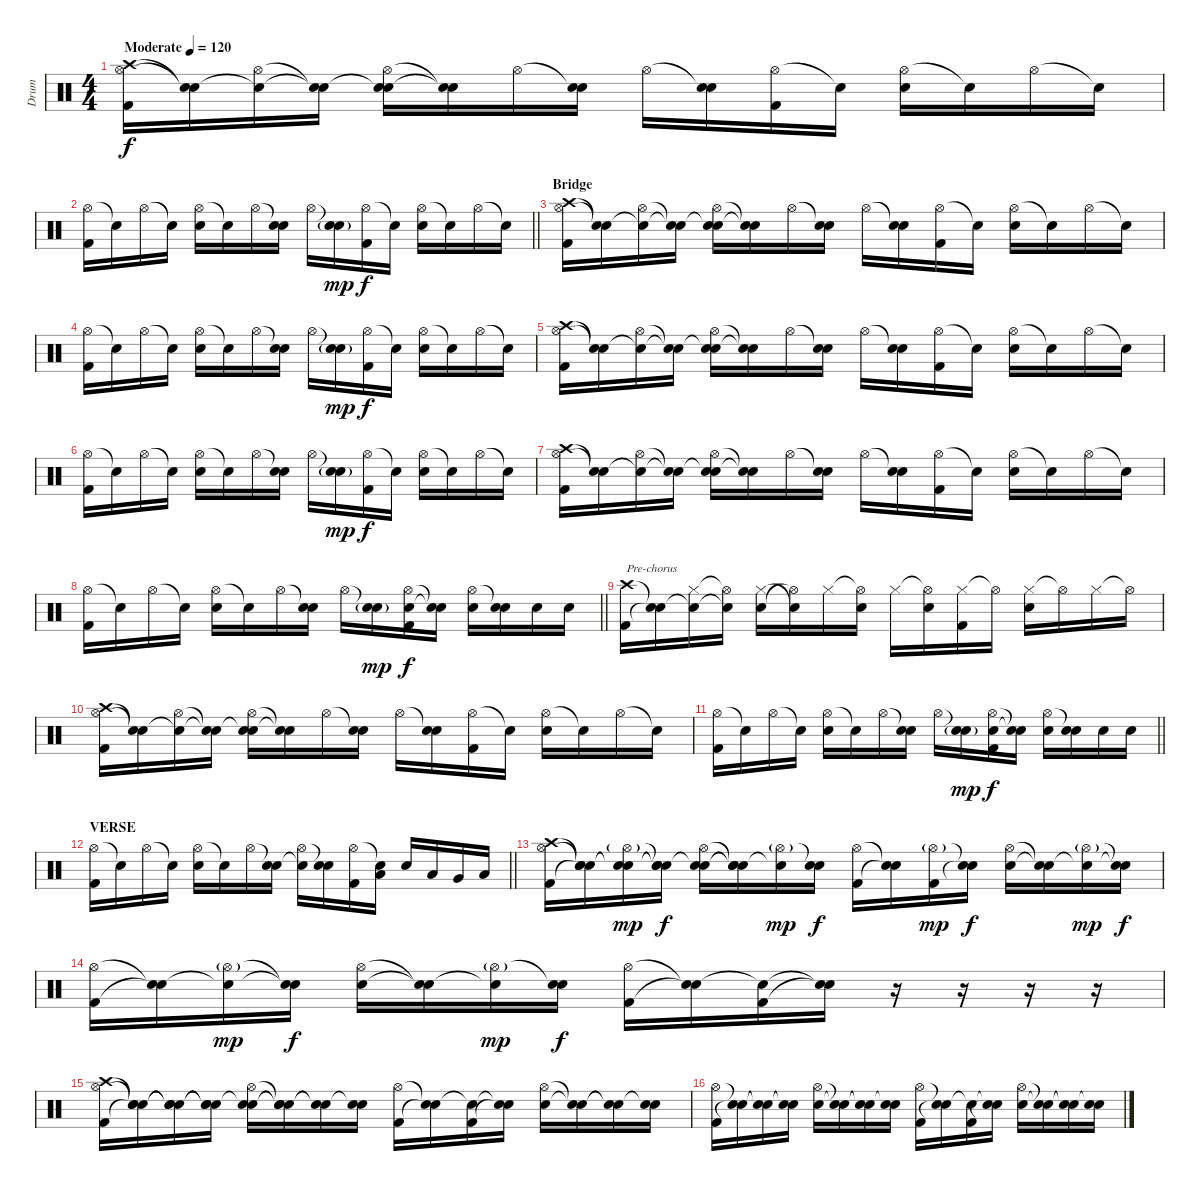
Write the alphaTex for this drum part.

\track ("Drum" "Drum") {instrument percussion}
\staff {score}
\articulation defaults
\ts (4 4)
\tempo (120 "Moderate")
\clef neutral
\ks c
("Crash high (hit)" "Hi-Hat (open)" "Kick (hit) 2").16{dy f} ("Snare (hit)"{t} "Snare (hit)"{t}).16 ("Snare (hit)"{t} "Hi-Hat (open)").16 ("Snare (hit)"{t} "Snare (hit)"{t}).16 ("Snare (hit)"{t} "Hi-Hat (open)" "Electric Snare (hit)").16 ("Snare (hit)"{t} "Snare (hit)"{t}).16 "Hi-Hat (open)".16 ("Snare (hit)"{t} "Electric Snare (hit)").16 "Hi-Hat (open)".16 ("Snare (hit)"{t} "Electric Snare (hit)").16 ("Hi-Hat (open)" "Kick (hit) 2").16 "Snare (hit)"{t}.16 ("Hi-Hat (open)" "Electric Snare (hit)").16 "Snare (hit)"{t}.16 "Hi-Hat (open)".16 "Snare (hit)"{t}.16 |
\barLineRight lightlight
("Hi-Hat (open)" "Kick (hit) 2").16 "Snare (hit)"{t}.16 "Hi-Hat (open)".16 "Snare (hit)"{t}.16 ("Hi-Hat (open)" "Electric Snare (hit)").16 "Snare (hit)"{t}.16 "Hi-Hat (open)".16 ("Snare (hit)"{t} "Electric Snare (hit)").16 "Hi-Hat (open)".16 ("Snare (hit)"{t} "Electric Snare (hit)"{g}).16{dy mp} ("Hi-Hat (open)" "Kick (hit) 2").16{dy f} "Snare (hit)"{t}.16 ("Hi-Hat (open)" "Electric Snare (hit)").16 "Snare (hit)"{t}.16 "Hi-Hat (open)".16 "Snare (hit)"{t}.16 |
\section ("" "Bridge")
("Crash high (hit)" "Hi-Hat (open)" "Kick (hit) 2").16 ("Snare (hit)"{t} "Snare (hit)"{t}).16 ("Snare (hit)"{t} "Hi-Hat (open)").16 ("Snare (hit)"{t} "Snare (hit)"{t}).16 ("Snare (hit)"{t} "Hi-Hat (open)" "Electric Snare (hit)").16 ("Snare (hit)"{t} "Snare (hit)"{t}).16 "Hi-Hat (open)".16 ("Snare (hit)"{t} "Electric Snare (hit)").16 "Hi-Hat (open)".16 ("Snare (hit)"{t} "Electric Snare (hit)").16 ("Hi-Hat (open)" "Kick (hit) 2").16 "Snare (hit)"{t}.16 ("Hi-Hat (open)" "Electric Snare (hit)").16 "Snare (hit)"{t}.16 "Hi-Hat (open)".16 "Snare (hit)"{t}.16 |
("Hi-Hat (open)" "Kick (hit) 2").16 "Snare (hit)"{t}.16 "Hi-Hat (open)".16 "Snare (hit)"{t}.16 ("Hi-Hat (open)" "Electric Snare (hit)").16 "Snare (hit)"{t}.16 "Hi-Hat (open)".16 ("Snare (hit)"{t} "Electric Snare (hit)").16 "Hi-Hat (open)".16 ("Snare (hit)"{t} "Electric Snare (hit)"{g}).16{dy mp} ("Hi-Hat (open)" "Kick (hit) 2").16{dy f} "Snare (hit)"{t}.16 ("Hi-Hat (open)" "Electric Snare (hit)").16 "Snare (hit)"{t}.16 "Hi-Hat (open)".16 "Snare (hit)"{t}.16 |
("Crash high (hit)" "Hi-Hat (open)" "Kick (hit) 2").16 ("Snare (hit)"{t} "Snare (hit)"{t}).16 ("Snare (hit)"{t} "Hi-Hat (open)").16 ("Snare (hit)"{t} "Snare (hit)"{t}).16 ("Snare (hit)"{t} "Hi-Hat (open)" "Electric Snare (hit)").16 ("Snare (hit)"{t} "Snare (hit)"{t}).16 "Hi-Hat (open)".16 ("Snare (hit)"{t} "Electric Snare (hit)").16 "Hi-Hat (open)".16 ("Snare (hit)"{t} "Electric Snare (hit)").16 ("Hi-Hat (open)" "Kick (hit) 2").16 "Snare (hit)"{t}.16 ("Hi-Hat (open)" "Electric Snare (hit)").16 "Snare (hit)"{t}.16 "Hi-Hat (open)".16 "Snare (hit)"{t}.16 |
("Hi-Hat (open)" "Kick (hit) 2").16 "Snare (hit)"{t}.16 "Hi-Hat (open)".16 "Snare (hit)"{t}.16 ("Hi-Hat (open)" "Electric Snare (hit)").16 "Snare (hit)"{t}.16 "Hi-Hat (open)".16 ("Snare (hit)"{t} "Electric Snare (hit)").16 "Hi-Hat (open)".16 ("Snare (hit)"{t} "Electric Snare (hit)"{g}).16{dy mp} ("Hi-Hat (open)" "Kick (hit) 2").16{dy f} "Snare (hit)"{t}.16 ("Hi-Hat (open)" "Electric Snare (hit)").16 "Snare (hit)"{t}.16 "Hi-Hat (open)".16 "Snare (hit)"{t}.16 |
("Crash high (hit)" "Hi-Hat (open)" "Kick (hit) 2").16 ("Snare (hit)"{t} "Snare (hit)"{t}).16 ("Snare (hit)"{t} "Hi-Hat (open)").16 ("Snare (hit)"{t} "Snare (hit)"{t}).16 ("Snare (hit)"{t} "Hi-Hat (open)" "Electric Snare (hit)").16 ("Snare (hit)"{t} "Snare (hit)"{t}).16 "Hi-Hat (open)".16 ("Snare (hit)"{t} "Electric Snare (hit)").16 "Hi-Hat (open)".16 ("Snare (hit)"{t} "Electric Snare (hit)").16 ("Hi-Hat (open)" "Kick (hit) 2").16 "Snare (hit)"{t}.16 ("Hi-Hat (open)" "Electric Snare (hit)").16 "Snare (hit)"{t}.16 "Hi-Hat (open)".16 "Snare (hit)"{t}.16 |
\barLineRight lightlight
("Hi-Hat (open)" "Kick (hit) 2").16 "Snare (hit)"{t}.16 "Hi-Hat (open)".16 "Snare (hit)"{t}.16 ("Hi-Hat (open)" "Electric Snare (hit)").16 "Snare (hit)"{t}.16 "Hi-Hat (open)".16 ("Snare (hit)"{t} "Electric Snare (hit)").16 "Hi-Hat (open)".16 ("Snare (hit)"{t} "Electric Snare (hit)"{g}).16{dy mp} ("Hi-Hat (open)" "Electric Snare (hit)" "Kick (hit) 2").16{dy f} ("Snare (hit)"{t} "Snare (hit)"{t}).16 ("Hi-Hat (open)" "Electric Snare (hit)").16 ("Snare (hit)"{t} "Electric Snare (hit)").16 "Electric Snare (hit)".16 "Electric Snare (hit)".16 |
("Crash high (hit)" "Kick (hit) 2").16{txt "Pre-chorus"} ("Snare (hit)"{t} "Snare (hit)"{t}).16 ("Snare (hit)"{t} "Hi-Hat (closed)").16 ("Snare (hit)"{t} "Hi-Hat (open)"{t}).16 ("Hi-Hat (closed)" "Electric Snare (hit)").16 ("Snare (hit)"{t} "Hi-Hat (open)"{t}).16 "Hi-Hat (closed)".16 ("Hi-Hat (open)"{t} "Electric Snare (hit)").16 "Hi-Hat (closed)".16 ("Hi-Hat (open)"{t} "Electric Snare (hit)").16 ("Hi-Hat (closed)" "Kick (hit) 2").16 "Hi-Hat (open)"{t}.16 ("Hi-Hat (closed)" "Electric Snare (hit)").16 "Hi-Hat (open)"{t}.16 "Hi-Hat (closed)".16 "Hi-Hat (open)"{t}.16 |
("Crash high (hit)" "Hi-Hat (open)" "Kick (hit) 2").16 ("Snare (hit)"{t} "Snare (hit)"{t}).16 ("Snare (hit)"{t} "Hi-Hat (open)").16 ("Snare (hit)"{t} "Snare (hit)"{t}).16 ("Snare (hit)"{t} "Hi-Hat (open)" "Electric Snare (hit)").16 ("Snare (hit)"{t} "Snare (hit)"{t}).16 "Hi-Hat (open)".16 ("Snare (hit)"{t} "Electric Snare (hit)").16 "Hi-Hat (open)".16 ("Snare (hit)"{t} "Electric Snare (hit)").16 ("Hi-Hat (open)" "Kick (hit) 2").16 "Snare (hit)"{t}.16 ("Hi-Hat (open)" "Electric Snare (hit)").16 "Snare (hit)"{t}.16 "Hi-Hat (open)".16 "Snare (hit)"{t}.16 |
\barLineRight lightlight
("Hi-Hat (open)" "Kick (hit) 2").16 "Snare (hit)"{t}.16 "Hi-Hat (open)".16 "Snare (hit)"{t}.16 ("Hi-Hat (open)" "Electric Snare (hit)").16 "Snare (hit)"{t}.16 "Hi-Hat (open)".16 ("Snare (hit)"{t} "Electric Snare (hit)").16 "Hi-Hat (open)".16 ("Snare (hit)"{t} "Electric Snare (hit)"{g}).16{dy mp} ("Hi-Hat (open)" "Electric Snare (hit)" "Kick (hit) 2").16{dy f} ("Snare (hit)"{t} "Snare (hit)"{t}).16 ("Hi-Hat (open)" "Electric Snare (hit)").16 ("Snare (hit)"{t} "Electric Snare (hit)").16 "Electric Snare (hit)".16 "Electric Snare (hit)".16 |
\section ("" "VERSE")
\barLineRight lightlight
("Hi-Hat (open)" "Kick (hit) 2").16 "Snare (hit)"{t}.16 "Hi-Hat (open)".16 "Snare (hit)"{t}.16 ("Hi-Hat (open)" "Electric Snare (hit)").16 "Snare (hit)"{t}.16 "Hi-Hat (open)".16 ("Snare (hit)"{t} "Electric Snare (hit)").16 ("Hi-Hat (open)" "Electric Snare (hit)"{t}).16 ("Snare (hit)"{t} "Electric Snare (hit)").16 ("Hi-Hat (open)" "Kick (hit) 2").16 ("Snare (hit)"{t} "Low Tom (hit)").16 "Electric Snare (hit)".16 "Low Tom (hit)".16 "Very Low Tom (hit)".16 "Low Floor Tom (hit)".16 |
("Crash high (hit)" "Hi-Hat (open)" "Kick (hit) 2").16 ("Snare (hit)"{t} "Snare (hit)"{t} "Snare (hit)"{t}).16 ("Snare (hit)"{t} "Hi-Hat (open)"{g} "Snare (hit)"{t}).16{dy mp} ("Snare (hit)"{t} "Snare (hit)"{t} "Snare (hit)"{t}).16{dy f} ("Snare (hit)"{t} "Hi-Hat (open)" "Electric Snare (hit)").16 ("Snare (hit)"{t} "Snare (hit)"{t} "Snare (hit)"{t}).16 ("Hi-Hat (open)"{g} "Snare (hit)"{t}).16{dy mp} ("Snare (hit)"{t} "Electric Snare (hit)").16{dy f} ("Hi-Hat (open)" "Kick (hit) 2").16 ("Snare (hit)"{t} "Snare (hit)"{t}).16 ("Hi-Hat (open)"{g} "Kick (hit) 2").16{dy mp} ("Snare (hit)"{t} "Snare (hit)"{t}).16{dy f} ("Hi-Hat (open)" "Electric Snare (hit)").16 ("Snare (hit)"{t} "Snare (hit)"{t}).16 ("Hi-Hat (open)"{g} "Snare (hit)"{t}).16{dy mp} ("Snare (hit)"{t} "Snare (hit)"{t}).16{dy f} |
("Hi-Hat (open)" "Kick (hit) 2").16 ("Snare (hit)"{t} "Snare (hit)"{t}).16 ("Hi-Hat (open)"{g} "Snare (hit)"{t}).16{dy mp} ("Snare (hit)"{t} "Snare (hit)"{t}).16{dy f} ("Hi-Hat (open)" "Electric Snare (hit)").16 ("Snare (hit)"{t} "Snare (hit)"{t}).16 ("Hi-Hat (open)"{g} "Snare (hit)"{t}).16{dy mp} ("Snare (hit)"{t} "Electric Snare (hit)").16{dy f} ("Hi-Hat (open)" "Kick (hit) 2").16 ("Snare (hit)"{t} "Snare (hit)"{t}).16 ("Snare (hit)"{t} "Kick (hit) 2").16 ("Snare (hit)"{t} "Snare (hit)"{t}).16 r.16 r.16 r.16 r.16 |
("Crash high (hit)" "Hi-Hat (open)" "Kick (hit) 2").16 ("Snare (hit)"{t} "Snare (hit)"{t} "Snare (hit)"{t}).16 ("Snare (hit)"{t} "Snare (hit)"{t} "Snare (hit)"{t}).16 ("Snare (hit)"{t} "Snare (hit)"{t} "Snare (hit)"{t}).16 ("Snare (hit)"{t} "Hi-Hat (open)" "Electric Snare (hit)").16 ("Snare (hit)"{t} "Snare (hit)"{t} "Snare (hit)"{t}).16 ("Snare (hit)"{t} "Snare (hit)"{t}).16 ("Snare (hit)"{t} "Electric Snare (hit)").16 ("Hi-Hat (open)" "Kick (hit) 2").16 ("Snare (hit)"{t} "Snare (hit)"{t}).16 ("Snare (hit)"{t} "Kick (hit) 2").16 ("Snare (hit)"{t} "Snare (hit)"{t}).16 ("Hi-Hat (open)" "Electric Snare (hit)").16 ("Snare (hit)"{t} "Snare (hit)"{t}).16 ("Snare (hit)"{t} "Snare (hit)"{t}).16 ("Snare (hit)"{t} "Electric Snare (hit)").16 |
("Hi-Hat (open)" "Kick (hit) 2").16 ("Snare (hit)"{t} "Snare (hit)"{t}).16 ("Snare (hit)"{t} "Snare (hit)"{t}).16 ("Snare (hit)"{t} "Snare (hit)"{t}).16 ("Hi-Hat (open)" "Electric Snare (hit)").16 ("Snare (hit)"{t} "Snare (hit)"{t}).16 ("Snare (hit)"{t} "Snare (hit)"{t}).16 ("Snare (hit)"{t} "Electric Snare (hit)").16 ("Hi-Hat (open)" "Kick (hit) 2").16 ("Snare (hit)"{t} "Snare (hit)"{t}).16 ("Snare (hit)"{t} "Kick (hit) 2").16 ("Snare (hit)"{t} "Snare (hit)"{t}).16 ("Hi-Hat (open)" "Electric Snare (hit)").16 ("Snare (hit)"{t} "Snare (hit)"{t}).16 ("Snare (hit)"{t} "Snare (hit)"{t}).16 ("Snare (hit)"{t} "Electric Snare (hit)").16
